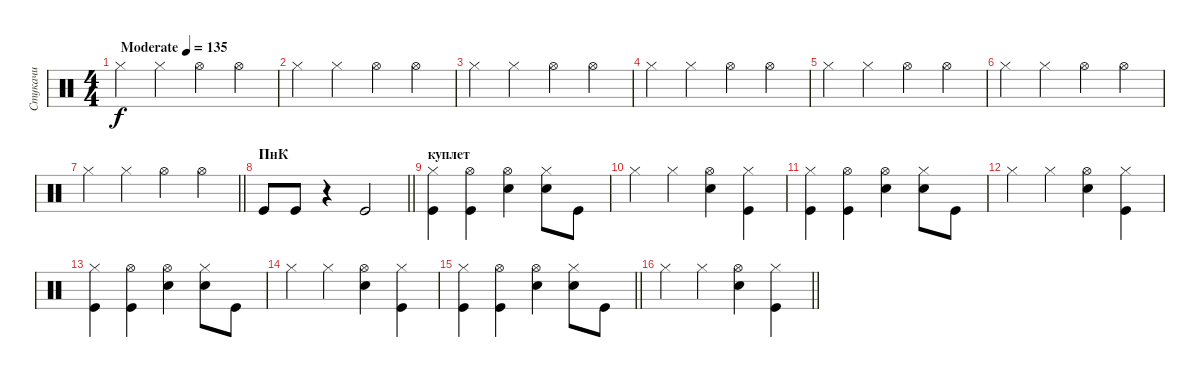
\track ("Стукачи" "Стукачи") {instrument percussion}
\staff {score}
\articulation defaults
\ts (4 4)
\tempo (135 "Moderate")
\clef neutral
\ks c "Hi-Hat (closed)".4{dy f} "Hi-Hat (closed)".4 "Hi-Hat (open)".4 "Hi-Hat (open)".4
|
"Hi-Hat (closed)".4 "Hi-Hat (closed)".4 "Hi-Hat (open)".4 "Hi-Hat (open)".4 |
"Hi-Hat (closed)".4 "Hi-Hat (closed)".4 "Hi-Hat (open)".4 "Hi-Hat (open)".4 |
"Hi-Hat (closed)".4 "Hi-Hat (closed)".4 "Hi-Hat (open)".4 "Hi-Hat (open)".4 |
"Hi-Hat (closed)".4 "Hi-Hat (closed)".4 "Hi-Hat (open)".4 "Hi-Hat (open)".4 |
"Hi-Hat (closed)".4 "Hi-Hat (closed)".4 "Hi-Hat (open)".4 "Hi-Hat (open)".4 |
\barLineRight lightlight "Hi-Hat (closed)".4 "Hi-Hat (closed)".4 "Hi-Hat (open)".4 "Hi-Hat (open)".4
|
\section ("" "ПнК")
\barLineRight lightlight "Kick (hit)".8 "Kick (hit)".8
r.4 "Kick (hit)".2 |
\section ("" "куплет")
("Hi-Hat (closed)" "Kick (hit)").4 ("Hi-Hat (open)" "Kick (hit)").4 ("Hi-Hat (open)" "Snare (hit) 2").4 ("Hi-Hat (closed)" "Snare (hit) 2").8 "Kick (hit)".8 |
"Hi-Hat (closed)".4 "Hi-Hat (closed)".4 ("Hi-Hat (open)" "Snare (hit) 2").4 ("Hi-Hat (closed)" "Kick (hit)").4 |
("Hi-Hat (closed)" "Kick (hit)").4 ("Hi-Hat (open)" "Kick (hit)").4 ("Hi-Hat (open)" "Snare (hit) 2").4 ("Hi-Hat (closed)" "Snare (hit) 2").8 "Kick (hit)".8 |
"Hi-Hat (closed)".4 "Hi-Hat (closed)".4 ("Hi-Hat (open)" "Snare (hit) 2").4 ("Hi-Hat (closed)" "Kick (hit)").4 |
("Hi-Hat (closed)" "Kick (hit)").4 ("Hi-Hat (open)" "Kick (hit)").4 ("Hi-Hat (open)" "Snare (hit) 2").4 ("Hi-Hat (closed)" "Snare (hit) 2").8 "Kick (hit)".8 |
"Hi-Hat (closed)".4 "Hi-Hat (closed)".4 ("Hi-Hat (open)" "Snare (hit) 2").4 ("Hi-Hat (closed)" "Kick (hit)").4 |
\barLineRight lightlight
("Hi-Hat (closed)" "Kick (hit)").4 ("Hi-Hat (open)" "Kick (hit)").4 ("Hi-Hat (open)" "Snare (hit) 2").4 ("Hi-Hat (closed)" "Snare (hit) 2").8 "Kick (hit)".8 |
\barLineRight lightlight "Hi-Hat (closed)".4 "Hi-Hat (closed)".4
("Hi-Hat (open)" "Snare (hit) 2").4 ("Hi-Hat (closed)" "Kick (hit)").4
